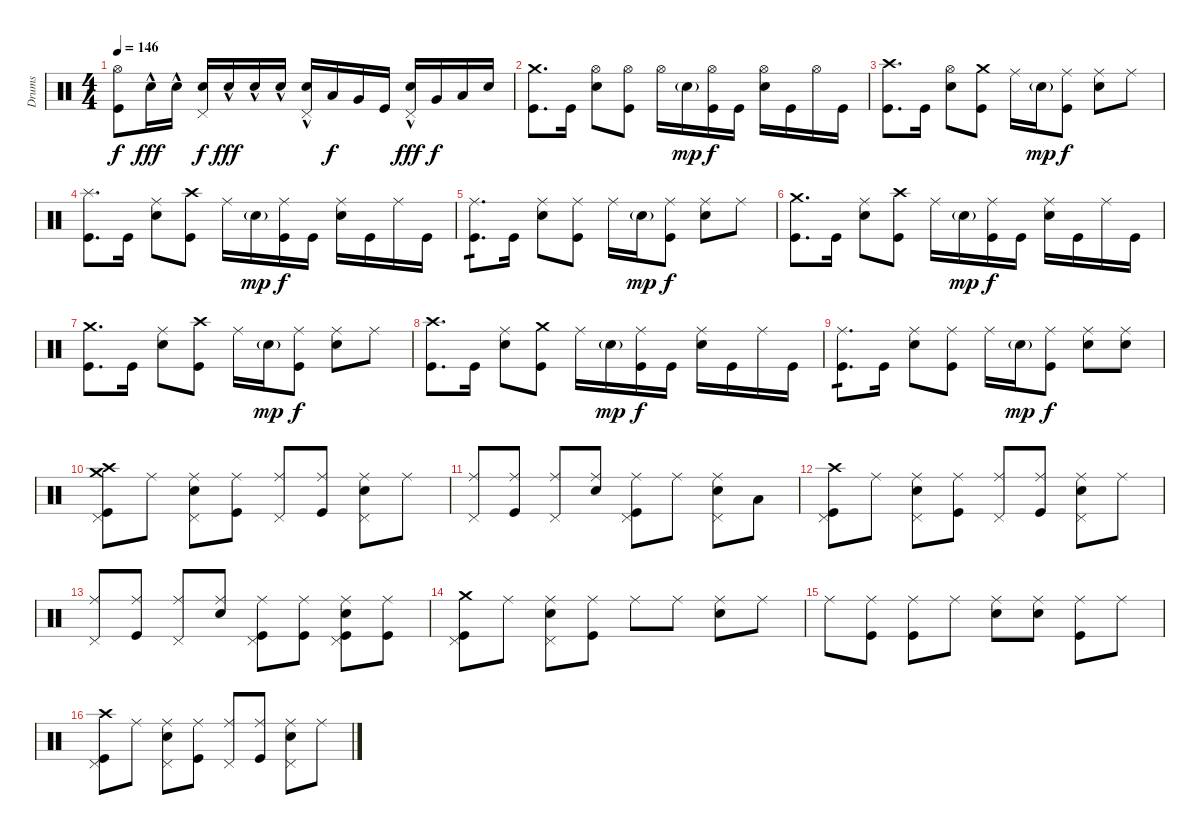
\track ("Drums" "Drums") {instrument percussion}
\staff {score}
\articulation defaults
\ts (4 4)
\tempo 146
\clef neutral
\ks c
("Hi-Hat (open)" "Kick (hit)").8{dy f} "Electric Snare (hit)"{hac}.16{dy fff} "Electric Snare (hit)"{hac}.16 ("Pedal Hi-Hat (hit)" "Electric Snare (hit)").16{dy f} "Electric Snare (hit)"{hac}.16{dy fff} "Electric Snare (hit)"{hac}.16 "Electric Snare (hit)"{hac}.16 ("Pedal Hi-Hat (hit)" "Electric Snare (hit)"{hac}).16 "Low Tom (hit)".16{dy f} "Very Low Tom (hit)".16 "Kick (hit)".16 ("Pedal Hi-Hat (hit)" "Electric Snare (hit)"{hac}).16{dy fff} "Very Low Tom (hit)".16{dy f} "Low Floor Tom (hit)".16 "Electric Snare (hit)".16 |
("Crash medium (hit)" "Kick (hit)").8{d} "Kick (hit)".16 ("Hi-Hat (open)" "Electric Snare (hit)").8 ("Hi-Hat (open)" "Kick (hit)").8 "Hi-Hat (open)".16 "Electric Snare (hit)"{g}.16{dy mp} ("Hi-Hat (open)" "Kick (hit)").16{dy f} "Kick (hit)".16 ("Hi-Hat (open)" "Electric Snare (hit)").16 "Kick (hit)".16 "Hi-Hat (open)".16 "Kick (hit)".16 |
("Crash high (hit)" "Kick (hit)").8{d} "Kick (hit)".16 ("Hi-Hat (open)" "Electric Snare (hit)").8 ("Crash medium (hit)" "Kick (hit)").8 "Ride (middle)".16 "Electric Snare (hit)"{g}.16{dy mp} ("Ride (middle)" "Kick (hit)").8{dy f} ("Ride (middle)" "Electric Snare (hit)").8 "Ride (middle)".8 |
("Splash (hit)" "Kick (hit)").8{d} "Kick (hit)".16 ("Ride (middle)" "Electric Snare (hit)").8 ("Crash high (hit)" "Kick (hit)").8 "Ride (middle)".16 "Electric Snare (hit)"{g}.16{dy mp} ("Ride (middle)" "Kick (hit)").16{dy f} "Kick (hit)".16 ("Ride (middle)" "Electric Snare (hit)").16 "Kick (hit)".16 "Ride (middle)".16 "Kick (hit)".16 |
("Ride (middle)" "Kick (hit)").8{d tp 1} "Kick (hit)".16 ("Ride (middle)" "Electric Snare (hit)").8 ("Ride (middle)" "Kick (hit)").8 "Ride (middle)".16 "Electric Snare (hit)"{g}.16{dy mp} ("Ride (middle)" "Kick (hit)").8{dy f} ("Ride (middle)" "Electric Snare (hit)").8 "Ride (middle)".8 |
("Crash medium (hit)" "Kick (hit)").8{d} "Kick (hit)".16 ("Ride (middle)" "Electric Snare (hit)").8 ("Crash high (hit)" "Kick (hit)").8 "Ride (middle)".16 "Electric Snare (hit)"{g}.16{dy mp} ("Ride (middle)" "Kick (hit)").16{dy f} "Kick (hit)".16 ("Ride (middle)" "Electric Snare (hit)").16 "Kick (hit)".16 "Ride (middle)".16 "Kick (hit)".16 |
("Crash medium (hit)" "Kick (hit)").8{d} "Kick (hit)".16 ("Ride (middle)" "Electric Snare (hit)").8 ("Crash high (hit)" "Kick (hit)").8 "Ride (middle)".16 "Electric Snare (hit)"{g}.16{dy mp} ("Ride (middle)" "Kick (hit)").8{dy f} ("Ride (middle)" "Electric Snare (hit)").8 "Ride (middle)".8 |
("Crash high (hit)" "Kick (hit)").8{d} "Kick (hit)".16 ("Ride (middle)" "Electric Snare (hit)").8 ("Crash medium (hit)" "Kick (hit)").8 "Ride (middle)".16 "Electric Snare (hit)"{g}.16{dy mp} ("Ride (middle)" "Kick (hit)").16{dy f} "Kick (hit)".16 ("Ride (middle)" "Electric Snare (hit)").16 "Kick (hit)".16 "Ride (middle)".16 "Kick (hit)".16 |
("Ride (middle)" "Kick (hit)").8{d tp 1} "Kick (hit)".16 ("Ride (middle)" "Electric Snare (hit)").8 ("Ride (middle)" "Kick (hit)").8 "Ride (middle)".16 "Electric Snare (hit)"{g}.16{dy mp} ("Ride (middle)" "Kick (hit)").8{dy f} ("Ride (middle)" "Electric Snare (hit)").8 ("Ride (middle)" "Electric Snare (hit)").8 |
("Crash medium (hit)" "Crash high (hit)" "Pedal Hi-Hat (hit)" "Kick (hit)").8 "Ride (middle)".8 ("Ride (middle)" "Pedal Hi-Hat (hit)" "Electric Snare (hit)").8 ("Ride (middle)" "Kick (hit)").8 ("Ride (middle)" "Pedal Hi-Hat (hit)").8 ("Ride (middle)" "Kick (hit)").8 ("Ride (middle)" "Pedal Hi-Hat (hit)" "Electric Snare (hit)").8 "Ride (middle)".8 |
("Ride (middle)" "Pedal Hi-Hat (hit)").8 ("Ride (middle)" "Kick (hit)").8 ("Ride (middle)" "Pedal Hi-Hat (hit)").8 ("Ride (middle)" "Electric Snare (hit)").8 ("Ride (middle)" "Pedal Hi-Hat (hit)" "Kick (hit)").8 "Ride (middle)".8 ("Ride (middle)" "Pedal Hi-Hat (hit)" "Electric Snare (hit)").8 "Low Tom (hit)".8 |
("Crash high (hit)" "Pedal Hi-Hat (hit)" "Kick (hit)").8 "Ride (middle)".8 ("Ride (middle)" "Pedal Hi-Hat (hit)" "Electric Snare (hit)").8 ("Ride (middle)" "Kick (hit)").8 ("Ride (middle)" "Pedal Hi-Hat (hit)").8 ("Ride (middle)" "Kick (hit)").8 ("Ride (middle)" "Pedal Hi-Hat (hit)" "Electric Snare (hit)").8 "Ride (middle)".8 |
("Ride (middle)" "Pedal Hi-Hat (hit)").8 ("Ride (middle)" "Kick (hit)").8 ("Ride (middle)" "Pedal Hi-Hat (hit)").8 ("Ride (middle)" "Electric Snare (hit)").8 ("Ride (middle)" "Pedal Hi-Hat (hit)" "Kick (hit)").8 ("Ride (middle)" "Kick (hit)").8 ("Ride (middle)" "Pedal Hi-Hat (hit)" "Electric Snare (hit)" "Kick (hit)").8 ("Ride (middle)" "Kick (hit)").8 |
("Crash medium (hit)" "Pedal Hi-Hat (hit)" "Kick (hit)").8 "Ride (middle)".8 ("Ride (middle)" "Pedal Hi-Hat (hit)" "Electric Snare (hit)").8 ("Ride (middle)" "Kick (hit)").8 "Ride (middle)".8 "Ride (middle)".8 ("Ride (middle)" "Electric Snare (hit)").8 "Ride (middle)".8 |
"Ride (middle)".8 ("Ride (middle)" "Kick (hit)").8 ("Ride (middle)" "Kick (hit)").8 "Ride (middle)".8 ("Ride (middle)" "Electric Snare (hit)").8 ("Ride (middle)" "Electric Snare (hit)").8 ("Ride (middle)" "Kick (hit)").8 "Ride (middle)".8 |
("Crash high (hit)" "Pedal Hi-Hat (hit)" "Kick (hit)").8 "Ride (middle)".8 ("Ride (middle)" "Pedal Hi-Hat (hit)" "Electric Snare (hit)").8 ("Ride (middle)" "Kick (hit)").8 ("Ride (middle)" "Pedal Hi-Hat (hit)").8 ("Ride (middle)" "Kick (hit)").8 ("Ride (middle)" "Pedal Hi-Hat (hit)" "Electric Snare (hit)").8 "Ride (middle)".8
